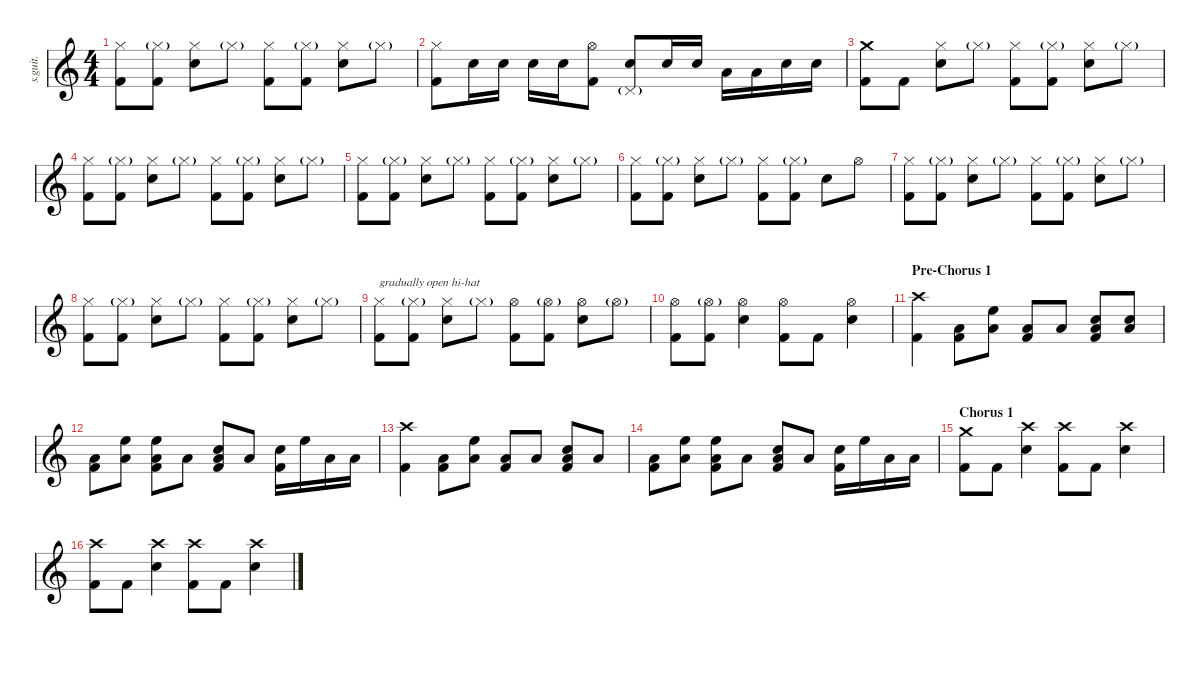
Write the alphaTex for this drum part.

\defaultSystemsLayout 4
\hideDynamics
\bracketExtendMode nobrackets
\track ("Travis" "s.guit.") {instrument percussion}
\staff {score}
\articulation defaults
\ts (4 4)
\tempo (149 hide)
\clef g2
\ks c
("Hi-Hat (closed)" "Kick (hit) 2").8{lyrics (0 "") lyrics (1 "") lyrics (2 "") lyrics (3 "") lyrics (4 "") dy f} ("Hi-Hat (closed)"{g} "Kick (hit) 2").8{lyrics (0 "") lyrics (1 "") lyrics (2 "") lyrics (3 "") lyrics (4 "")} ("Hi-Hat (closed)" "Snare (hit) 2").8{lyrics (0 "") lyrics (1 "") lyrics (2 "") lyrics (3 "") lyrics (4 "")} "Hi-Hat (closed)"{g}.8{lyrics (0 "") lyrics (1 "") lyrics (2 "") lyrics (3 "") lyrics (4 "") dy mp} ("Hi-Hat (closed)" "Kick (hit) 2").8{lyrics (0 "") lyrics (1 "") lyrics (2 "") lyrics (3 "") lyrics (4 "") dy f} ("Hi-Hat (closed)"{g} "Kick (hit) 2").8{lyrics (0 "") lyrics (1 "") lyrics (2 "") lyrics (3 "") lyrics (4 "")} ("Hi-Hat (closed)" "Snare (hit) 2").8{lyrics (0 "") lyrics (1 "") lyrics (2 "") lyrics (3 "") lyrics (4 "")} "Hi-Hat (closed)"{g}.8{lyrics (0 "") lyrics (1 "") lyrics (2 "") lyrics (3 "") lyrics (4 "") dy mp} |
("Hi-Hat (closed)" "Kick (hit) 2").8{lyrics (0 "") lyrics (1 "") lyrics (2 "") lyrics (3 "") lyrics (4 "") dy f} "Snare (hit) 2".16{lyrics (0 "") lyrics (1 "") lyrics (2 "") lyrics (3 "") lyrics (4 "")} "Snare (hit) 2".16{lyrics (0 "") lyrics (1 "") lyrics (2 "") lyrics (3 "") lyrics (4 "")} "Snare (hit) 2".16{lyrics (0 "") lyrics (1 "") lyrics (2 "") lyrics (3 "") lyrics (4 "")} "Snare (hit) 2".16{lyrics (0 "") lyrics (1 "") lyrics (2 "") lyrics (3 "") lyrics (4 "")} ("Hi-Hat (open)" "Kick (hit) 2").8{lyrics (0 "") lyrics (1 "") lyrics (2 "") lyrics (3 "") lyrics (4 "")} ("Snare (hit) 2" "Pedal Hi-Hat (hit)"{g}).8{lyrics (0 "") lyrics (1 "") lyrics (2 "") lyrics (3 "") lyrics (4 "")} "Snare (hit) 2".16{lyrics (0 "") lyrics (1 "") lyrics (2 "") lyrics (3 "") lyrics (4 "")} "Snare (hit) 2".16{lyrics (0 "") lyrics (1 "") lyrics (2 "") lyrics (3 "") lyrics (4 "")} "Low Tom (hit)".16{lyrics (0 "") lyrics (1 "") lyrics (2 "") lyrics (3 "") lyrics (4 "") dy fff} "Low Tom (hit)".16{lyrics (0 "") lyrics (1 "") lyrics (2 "") lyrics (3 "") lyrics (4 "")} "Snare (hit) 2".16{lyrics (0 "") lyrics (1 "") lyrics (2 "") lyrics (3 "") lyrics (4 "") dy f} "Snare (hit) 2".16{lyrics (0 "") lyrics (1 "") lyrics (2 "") lyrics (3 "") lyrics (4 "")} |
("Crash medium (hit)" "Kick (hit) 2").8{lyrics (0 "") lyrics (1 "") lyrics (2 "") lyrics (3 "") lyrics (4 "")} "Kick (hit) 2".8{lyrics (0 "") lyrics (1 "") lyrics (2 "") lyrics (3 "") lyrics (4 "")} ("Hi-Hat (closed)" "Snare (hit) 2").8{lyrics (0 "") lyrics (1 "") lyrics (2 "") lyrics (3 "") lyrics (4 "")} "Hi-Hat (closed)"{g}.8{lyrics (0 "") lyrics (1 "") lyrics (2 "") lyrics (3 "") lyrics (4 "") dy mp} ("Hi-Hat (closed)" "Kick (hit) 2").8{lyrics (0 "") lyrics (1 "") lyrics (2 "") lyrics (3 "") lyrics (4 "") dy f} ("Hi-Hat (closed)"{g} "Kick (hit) 2").8{lyrics (0 "") lyrics (1 "") lyrics (2 "") lyrics (3 "") lyrics (4 "")} ("Hi-Hat (closed)" "Snare (hit) 2").8{lyrics (0 "") lyrics (1 "") lyrics (2 "") lyrics (3 "") lyrics (4 "")} "Hi-Hat (closed)"{g}.8{lyrics (0 "") lyrics (1 "") lyrics (2 "") lyrics (3 "") lyrics (4 "") dy mp} |
("Hi-Hat (closed)" "Kick (hit) 2").8{lyrics (0 "") lyrics (1 "") lyrics (2 "") lyrics (3 "") lyrics (4 "") dy f} ("Hi-Hat (closed)"{g} "Kick (hit) 2").8{lyrics (0 "") lyrics (1 "") lyrics (2 "") lyrics (3 "") lyrics (4 "")} ("Hi-Hat (closed)" "Snare (hit) 2").8{lyrics (0 "") lyrics (1 "") lyrics (2 "") lyrics (3 "") lyrics (4 "")} "Hi-Hat (closed)"{g}.8{lyrics (0 "") lyrics (1 "") lyrics (2 "") lyrics (3 "") lyrics (4 "") dy mp} ("Hi-Hat (closed)" "Kick (hit) 2").8{lyrics (0 "") lyrics (1 "") lyrics (2 "") lyrics (3 "") lyrics (4 "") dy f} ("Hi-Hat (closed)"{g} "Kick (hit) 2").8{lyrics (0 "") lyrics (1 "") lyrics (2 "") lyrics (3 "") lyrics (4 "")} ("Hi-Hat (closed)" "Snare (hit) 2").8{lyrics (0 "") lyrics (1 "") lyrics (2 "") lyrics (3 "") lyrics (4 "")} "Hi-Hat (closed)"{g}.8{lyrics (0 "") lyrics (1 "") lyrics (2 "") lyrics (3 "") lyrics (4 "") dy mp} |
("Hi-Hat (closed)" "Kick (hit) 2").8{lyrics (0 "") lyrics (1 "") lyrics (2 "") lyrics (3 "") lyrics (4 "") dy f} ("Hi-Hat (closed)"{g} "Kick (hit) 2").8{lyrics (0 "") lyrics (1 "") lyrics (2 "") lyrics (3 "") lyrics (4 "")} ("Hi-Hat (closed)" "Snare (hit) 2").8{lyrics (0 "") lyrics (1 "") lyrics (2 "") lyrics (3 "") lyrics (4 "")} "Hi-Hat (closed)"{g}.8{lyrics (0 "") lyrics (1 "") lyrics (2 "") lyrics (3 "") lyrics (4 "") dy mp} ("Hi-Hat (closed)" "Kick (hit) 2").8{lyrics (0 "") lyrics (1 "") lyrics (2 "") lyrics (3 "") lyrics (4 "") dy f} ("Hi-Hat (closed)"{g} "Kick (hit) 2").8{lyrics (0 "") lyrics (1 "") lyrics (2 "") lyrics (3 "") lyrics (4 "")} ("Hi-Hat (closed)" "Snare (hit) 2").8{lyrics (0 "") lyrics (1 "") lyrics (2 "") lyrics (3 "") lyrics (4 "")} "Hi-Hat (closed)"{g}.8{lyrics (0 "") lyrics (1 "") lyrics (2 "") lyrics (3 "") lyrics (4 "") dy mp} |
("Hi-Hat (closed)" "Kick (hit) 2").8{lyrics (0 "") lyrics (1 "") lyrics (2 "") lyrics (3 "") lyrics (4 "") dy f} ("Hi-Hat (closed)"{g} "Kick (hit) 2").8{lyrics (0 "") lyrics (1 "") lyrics (2 "") lyrics (3 "") lyrics (4 "")} ("Hi-Hat (closed)" "Snare (hit) 2").8{lyrics (0 "") lyrics (1 "") lyrics (2 "") lyrics (3 "") lyrics (4 "")} "Hi-Hat (closed)"{g}.8{lyrics (0 "") lyrics (1 "") lyrics (2 "") lyrics (3 "") lyrics (4 "") dy mp} ("Hi-Hat (closed)" "Kick (hit) 2").8{lyrics (0 "") lyrics (1 "") lyrics (2 "") lyrics (3 "") lyrics (4 "") dy f} ("Hi-Hat (closed)"{g} "Kick (hit) 2").8{lyrics (0 "") lyrics (1 "") lyrics (2 "") lyrics (3 "") lyrics (4 "")} "Snare (hit) 2".8{lyrics (0 "") lyrics (1 "") lyrics (2 "") lyrics (3 "") lyrics (4 "")} "Hi-Hat (open)".8{lyrics (0 "") lyrics (1 "") lyrics (2 "") lyrics (3 "") lyrics (4 "")} |
("Hi-Hat (closed)" "Kick (hit) 2").8{lyrics (0 "") lyrics (1 "") lyrics (2 "") lyrics (3 "") lyrics (4 "")} ("Hi-Hat (closed)"{g} "Kick (hit) 2").8{lyrics (0 "") lyrics (1 "") lyrics (2 "") lyrics (3 "") lyrics (4 "")} ("Hi-Hat (closed)" "Snare (hit) 2").8{lyrics (0 "") lyrics (1 "") lyrics (2 "") lyrics (3 "") lyrics (4 "")} "Hi-Hat (closed)"{g}.8{lyrics (0 "") lyrics (1 "") lyrics (2 "") lyrics (3 "") lyrics (4 "") dy mp} ("Hi-Hat (closed)" "Kick (hit) 2").8{lyrics (0 "") lyrics (1 "") lyrics (2 "") lyrics (3 "") lyrics (4 "") dy f} ("Hi-Hat (closed)"{g} "Kick (hit) 2").8{lyrics (0 "") lyrics (1 "") lyrics (2 "") lyrics (3 "") lyrics (4 "")} ("Hi-Hat (closed)" "Snare (hit) 2").8{lyrics (0 "") lyrics (1 "") lyrics (2 "") lyrics (3 "") lyrics (4 "")} "Hi-Hat (closed)"{g}.8{lyrics (0 "") lyrics (1 "") lyrics (2 "") lyrics (3 "") lyrics (4 "") dy mp} |
("Hi-Hat (closed)" "Kick (hit) 2").8{lyrics (0 "") lyrics (1 "") lyrics (2 "") lyrics (3 "") lyrics (4 "") dy f} ("Hi-Hat (closed)"{g} "Kick (hit) 2").8{lyrics (0 "") lyrics (1 "") lyrics (2 "") lyrics (3 "") lyrics (4 "")} ("Hi-Hat (closed)" "Snare (hit) 2").8{lyrics (0 "") lyrics (1 "") lyrics (2 "") lyrics (3 "") lyrics (4 "")} "Hi-Hat (closed)"{g}.8{lyrics (0 "") lyrics (1 "") lyrics (2 "") lyrics (3 "") lyrics (4 "") dy mp} ("Hi-Hat (closed)" "Kick (hit) 2").8{lyrics (0 "") lyrics (1 "") lyrics (2 "") lyrics (3 "") lyrics (4 "") dy f} ("Hi-Hat (closed)"{g} "Kick (hit) 2").8{lyrics (0 "") lyrics (1 "") lyrics (2 "") lyrics (3 "") lyrics (4 "")} ("Hi-Hat (closed)" "Snare (hit) 2").8{lyrics (0 "") lyrics (1 "") lyrics (2 "") lyrics (3 "") lyrics (4 "")} "Hi-Hat (closed)"{g}.8{lyrics (0 "") lyrics (1 "") lyrics (2 "") lyrics (3 "") lyrics (4 "") dy mp} |
("Hi-Hat (closed)" "Kick (hit) 2").8{txt "gradually open hi-hat" lyrics (0 "") lyrics (1 "") lyrics (2 "") lyrics (3 "") lyrics (4 "") dy f} ("Hi-Hat (closed)"{g} "Kick (hit) 2").8{lyrics (0 "") lyrics (1 "") lyrics (2 "") lyrics (3 "") lyrics (4 "")} ("Hi-Hat (closed)" "Snare (hit) 2").8{lyrics (0 "") lyrics (1 "") lyrics (2 "") lyrics (3 "") lyrics (4 "")} "Hi-Hat (closed)"{g}.8{lyrics (0 "") lyrics (1 "") lyrics (2 "") lyrics (3 "") lyrics (4 "") dy mp} ("Hi-Hat (open)" "Kick (hit) 2").8{lyrics (0 "") lyrics (1 "") lyrics (2 "") lyrics (3 "") lyrics (4 "") dy f} ("Hi-Hat (open)"{g} "Kick (hit) 2").8{lyrics (0 "") lyrics (1 "") lyrics (2 "") lyrics (3 "") lyrics (4 "")} ("Hi-Hat (open)" "Snare (hit) 2").8{lyrics (0 "") lyrics (1 "") lyrics (2 "") lyrics (3 "") lyrics (4 "")} "Hi-Hat (open)"{g}.8{lyrics (0 "") lyrics (1 "") lyrics (2 "") lyrics (3 "") lyrics (4 "") dy ppp} |
("Hi-Hat (open)" "Kick (hit) 2").8{lyrics (0 "") lyrics (1 "") lyrics (2 "") lyrics (3 "") lyrics (4 "") dy f} ("Hi-Hat (open)"{g} "Kick (hit) 2").8{lyrics (0 "") lyrics (1 "") lyrics (2 "") lyrics (3 "") lyrics (4 "")} ("Hi-Hat (open)" "Snare (hit) 2").4{lyrics (0 "") lyrics (1 "") lyrics (2 "") lyrics (3 "") lyrics (4 "")} ("Hi-Hat (open)" "Kick (hit) 2").8{lyrics (0 "") lyrics (1 "") lyrics (2 "") lyrics (3 "") lyrics (4 "")} "Kick (hit) 2".8{lyrics (0 "") lyrics (1 "") lyrics (2 "") lyrics (3 "") lyrics (4 "")} ("Hi-Hat (open)" "Snare (hit) 2").4{lyrics (0 "") lyrics (1 "") lyrics (2 "") lyrics (3 "") lyrics (4 "")} |
\section ("" "Pre-Chorus 1")
("Crash high (hit)" "Kick (hit) 2").4{lyrics (0 "") lyrics (1 "") lyrics (2 "") lyrics (3 "") lyrics (4 "")} ("Low Tom (hit)" "Kick (hit) 2").8{lyrics (0 "") lyrics (1 "") lyrics (2 "") lyrics (3 "") lyrics (4 "")} ("High Floor Tom (hit)" "Low Tom (hit)").8{lyrics (0 "") lyrics (1 "") lyrics (2 "") lyrics (3 "") lyrics (4 "")} ("Low Tom (hit)" "Kick (hit) 2").8{lyrics (0 "") lyrics (1 "") lyrics (2 "") lyrics (3 "") lyrics (4 "")} "Low Tom (hit)".8{lyrics (0 "") lyrics (1 "") lyrics (2 "") lyrics (3 "") lyrics (4 "")} ("Snare (hit) 2" "Low Tom (hit)" "Kick (hit) 2").8{lyrics (0 "") lyrics (1 "") lyrics (2 "") lyrics (3 "") lyrics (4 "")} ("Snare (hit) 2" "Low Tom (hit)").8{lyrics (0 "") lyrics (1 "") lyrics (2 "") lyrics (3 "") lyrics (4 "")} |
("Low Tom (hit)" "Kick (hit) 2").8{lyrics (0 "") lyrics (1 "") lyrics (2 "") lyrics (3 "") lyrics (4 "")} ("High Floor Tom (hit)" "Low Tom (hit)").8{lyrics (0 "") lyrics (1 "") lyrics (2 "") lyrics (3 "") lyrics (4 "")} ("High Floor Tom (hit)" "Low Tom (hit)" "Kick (hit) 2").8{lyrics (0 "") lyrics (1 "") lyrics (2 "") lyrics (3 "") lyrics (4 "")} "Low Tom (hit)".8{lyrics (0 "") lyrics (1 "") lyrics (2 "") lyrics (3 "") lyrics (4 "")} ("Snare (hit) 2" "Low Tom (hit)" "Kick (hit) 2").8{lyrics (0 "") lyrics (1 "") lyrics (2 "") lyrics (3 "") lyrics (4 "")} "Low Tom (hit)".8{lyrics (0 "") lyrics (1 "") lyrics (2 "") lyrics (3 "") lyrics (4 "")} ("Snare (hit) 2" "Kick (hit) 2").16{lyrics (0 "") lyrics (1 "") lyrics (2 "") lyrics (3 "") lyrics (4 "")} "High Floor Tom (hit)".16{lyrics (0 "") lyrics (1 "") lyrics (2 "") lyrics (3 "") lyrics (4 "")} "Low Tom (hit)".16{lyrics (0 "") lyrics (1 "") lyrics (2 "") lyrics (3 "") lyrics (4 "")} "Low Tom (hit)".16{lyrics (0 "") lyrics (1 "") lyrics (2 "") lyrics (3 "") lyrics (4 "")} |
("Crash high (hit)" "Kick (hit) 2").4{lyrics (0 "") lyrics (1 "") lyrics (2 "") lyrics (3 "") lyrics (4 "")} ("Low Tom (hit)" "Kick (hit) 2").8{lyrics (0 "") lyrics (1 "") lyrics (2 "") lyrics (3 "") lyrics (4 "")} ("High Floor Tom (hit)" "Low Tom (hit)").8{lyrics (0 "") lyrics (1 "") lyrics (2 "") lyrics (3 "") lyrics (4 "")} ("Low Tom (hit)" "Kick (hit) 2").8{lyrics (0 "") lyrics (1 "") lyrics (2 "") lyrics (3 "") lyrics (4 "")} "Low Tom (hit)".8{lyrics (0 "") lyrics (1 "") lyrics (2 "") lyrics (3 "") lyrics (4 "")} ("Snare (hit) 2" "Low Tom (hit)" "Kick (hit) 2").8{lyrics (0 "") lyrics (1 "") lyrics (2 "") lyrics (3 "") lyrics (4 "")} "Low Tom (hit)".8{lyrics (0 "") lyrics (1 "") lyrics (2 "") lyrics (3 "") lyrics (4 "")} |
("Low Tom (hit)" "Kick (hit) 2").8{lyrics (0 "") lyrics (1 "") lyrics (2 "") lyrics (3 "") lyrics (4 "")} ("High Floor Tom (hit)" "Low Tom (hit)").8{lyrics (0 "") lyrics (1 "") lyrics (2 "") lyrics (3 "") lyrics (4 "")} ("High Floor Tom (hit)" "Low Tom (hit)" "Kick (hit) 2").8{lyrics (0 "") lyrics (1 "") lyrics (2 "") lyrics (3 "") lyrics (4 "")} "Low Tom (hit)".8{lyrics (0 "") lyrics (1 "") lyrics (2 "") lyrics (3 "") lyrics (4 "")} ("Snare (hit) 2" "Low Tom (hit)" "Kick (hit) 2").8{lyrics (0 "") lyrics (1 "") lyrics (2 "") lyrics (3 "") lyrics (4 "")} "Low Tom (hit)".8{lyrics (0 "") lyrics (1 "") lyrics (2 "") lyrics (3 "") lyrics (4 "")} ("Snare (hit) 2" "Kick (hit) 2").16{lyrics (0 "") lyrics (1 "") lyrics (2 "") lyrics (3 "") lyrics (4 "")} "High Floor Tom (hit)".16{lyrics (0 "") lyrics (1 "") lyrics (2 "") lyrics (3 "") lyrics (4 "")} "Low Tom (hit)".16{lyrics (0 "") lyrics (1 "") lyrics (2 "") lyrics (3 "") lyrics (4 "")} "Low Tom (hit)".16{lyrics (0 "") lyrics (1 "") lyrics (2 "") lyrics (3 "") lyrics (4 "")} |
\section ("" "Chorus 1")
("Crash medium (hit)" "Kick (hit) 2").8{lyrics (0 "") lyrics (1 "") lyrics (2 "") lyrics (3 "") lyrics (4 "")} "Kick (hit) 2".8{lyrics (0 "") lyrics (1 "") lyrics (2 "") lyrics (3 "") lyrics (4 "")} ("Crash high (hit)" "Snare (hit) 2").4{lyrics (0 "") lyrics (1 "") lyrics (2 "") lyrics (3 "") lyrics (4 "")} ("Crash high (hit)" "Kick (hit) 2").8{lyrics (0 "") lyrics (1 "") lyrics (2 "") lyrics (3 "") lyrics (4 "")} "Kick (hit) 2".8{lyrics (0 "") lyrics (1 "") lyrics (2 "") lyrics (3 "") lyrics (4 "")} ("Crash high (hit)" "Snare (hit) 2").4{lyrics (0 "") lyrics (1 "") lyrics (2 "") lyrics (3 "") lyrics (4 "")} |
("Crash high (hit)" "Kick (hit) 2").8{lyrics (0 "") lyrics (1 "") lyrics (2 "") lyrics (3 "") lyrics (4 "")} "Kick (hit) 2".8{lyrics (0 "") lyrics (1 "") lyrics (2 "") lyrics (3 "") lyrics (4 "")} ("Crash high (hit)" "Snare (hit) 2").4{lyrics (0 "") lyrics (1 "") lyrics (2 "") lyrics (3 "") lyrics (4 "")} ("Crash high (hit)" "Kick (hit) 2").8{lyrics (0 "") lyrics (1 "") lyrics (2 "") lyrics (3 "") lyrics (4 "")} "Kick (hit) 2".8{lyrics (0 "") lyrics (1 "") lyrics (2 "") lyrics (3 "") lyrics (4 "")} ("Crash high (hit)" "Snare (hit) 2").4{lyrics (0 "") lyrics (1 "") lyrics (2 "") lyrics (3 "") lyrics (4 "")}
